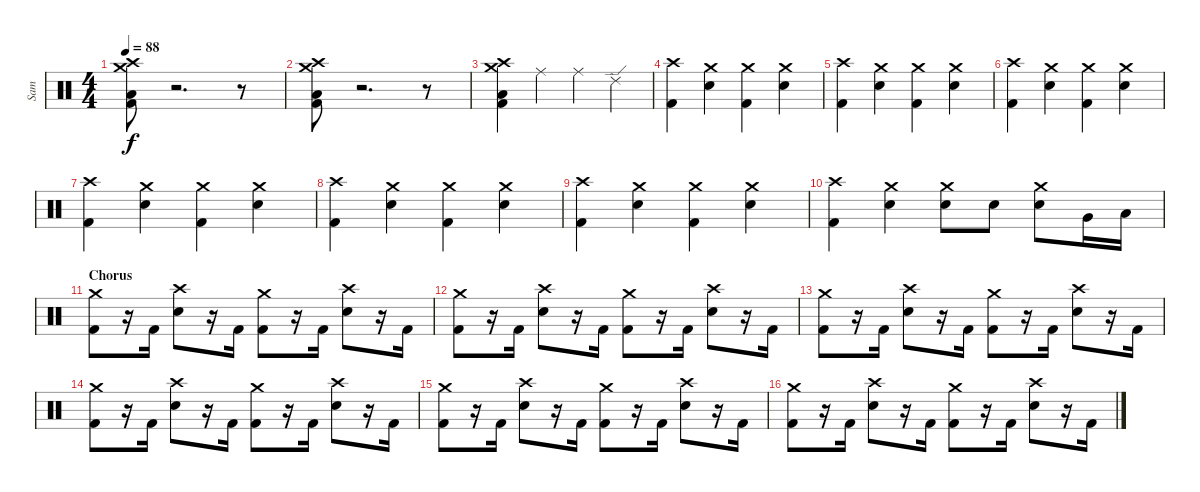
\track ("Sam" "Sam") {instrument percussion}
\staff {score}
\articulation defaults
\ts (4 4)
\tempo 88
\clef neutral
\ks c
("Crash medium (hit)" "Crash high (hit)" "Low Tom (hit)" "Kick (hit) 2").8{dy f} r.2{d} r.8 |
("Crash medium (hit)" "Crash high (hit)" "Low Tom (hit)" "Kick (hit) 2").8 r.2{d} r.8 |
("Crash medium (hit)" "Crash high (hit)" "Low Tom (hit)" "Kick (hit) 2").4 "Ride (middle)".4 "Ride (middle)".4 "Ride (edge) 2".4 |
("Crash high (hit)" "Kick (hit) 2").4 ("Crash medium (hit)" "Electric Snare (hit)").4 ("Crash medium (hit)" "Kick (hit) 2").4 ("Crash medium (hit)" "Electric Snare (hit)").4 |
("Crash high (hit)" "Kick (hit) 2").4 ("Crash medium (hit)" "Electric Snare (hit)").4 ("Crash medium (hit)" "Kick (hit) 2").4 ("Crash medium (hit)" "Electric Snare (hit)").4 |
("Crash high (hit)" "Kick (hit) 2").4 ("Crash medium (hit)" "Electric Snare (hit)").4 ("Crash medium (hit)" "Kick (hit) 2").4 ("Crash medium (hit)" "Electric Snare (hit)").4 |
("Crash high (hit)" "Kick (hit) 2").4 ("Crash medium (hit)" "Electric Snare (hit)").4 ("Crash medium (hit)" "Kick (hit) 2").4 ("Crash medium (hit)" "Electric Snare (hit)").4 |
("Crash high (hit)" "Kick (hit) 2").4 ("Crash medium (hit)" "Electric Snare (hit)").4 ("Crash medium (hit)" "Kick (hit) 2").4 ("Crash medium (hit)" "Electric Snare (hit)").4 |
("Crash high (hit)" "Kick (hit) 2").4 ("Crash medium (hit)" "Electric Snare (hit)").4 ("Crash medium (hit)" "Kick (hit) 2").4 ("Crash medium (hit)" "Electric Snare (hit)").4 |
("Crash high (hit)" "Kick (hit) 2").4 ("Crash medium (hit)" "Electric Snare (hit)").4 ("Crash medium (hit)" "Electric Snare (hit)").8 "Electric Snare (hit)".8 ("Crash medium (hit)" "Electric Snare (hit)").8 "Very Low Tom (hit)".16 "Low Tom (hit)".16 |
\section ("" "Chorus")
("Crash medium (hit)" "Kick (hit) 2").8 r.16 "Kick (hit) 2".16 ("Crash high (hit)" "Electric Snare (hit)").8 r.16 "Kick (hit) 2".16 ("Crash medium (hit)" "Kick (hit) 2").8 r.16 "Kick (hit) 2".16 ("Crash high (hit)" "Electric Snare (hit)").8 r.16 "Kick (hit) 2".16 |
("Crash medium (hit)" "Kick (hit) 2").8 r.16 "Kick (hit) 2".16 ("Crash high (hit)" "Electric Snare (hit)").8 r.16 "Kick (hit) 2".16 ("Crash medium (hit)" "Kick (hit) 2").8 r.16 "Kick (hit) 2".16 ("Crash high (hit)" "Electric Snare (hit)").8 r.16 "Kick (hit) 2".16 |
("Crash medium (hit)" "Kick (hit) 2").8 r.16 "Kick (hit) 2".16 ("Crash high (hit)" "Electric Snare (hit)").8 r.16 "Kick (hit) 2".16 ("Crash medium (hit)" "Kick (hit) 2").8 r.16 "Kick (hit) 2".16 ("Crash high (hit)" "Electric Snare (hit)").8 r.16 "Kick (hit) 2".16 |
("Crash medium (hit)" "Kick (hit) 2").8 r.16 "Kick (hit) 2".16 ("Crash high (hit)" "Electric Snare (hit)").8 r.16 "Kick (hit) 2".16 ("Crash medium (hit)" "Kick (hit) 2").8 r.16 "Kick (hit) 2".16 ("Crash high (hit)" "Electric Snare (hit)").8 r.16 "Kick (hit) 2".16 |
("Crash medium (hit)" "Kick (hit) 2").8 r.16 "Kick (hit) 2".16 ("Crash high (hit)" "Electric Snare (hit)").8 r.16 "Kick (hit) 2".16 ("Crash medium (hit)" "Kick (hit) 2").8 r.16 "Kick (hit) 2".16 ("Crash high (hit)" "Electric Snare (hit)").8 r.16 "Kick (hit) 2".16 |
("Crash medium (hit)" "Kick (hit) 2").8 r.16 "Kick (hit) 2".16 ("Crash high (hit)" "Electric Snare (hit)").8 r.16 "Kick (hit) 2".16 ("Crash medium (hit)" "Kick (hit) 2").8 r.16 "Kick (hit) 2".16 ("Crash high (hit)" "Electric Snare (hit)").8 r.16 "Kick (hit) 2".16
